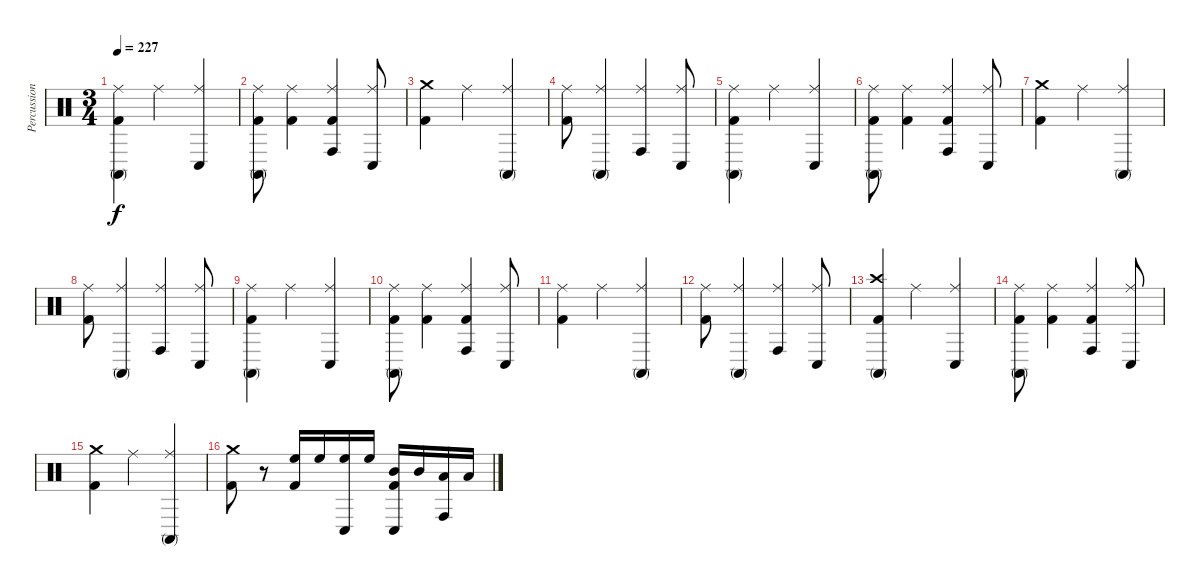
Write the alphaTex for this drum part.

\track ("Percussion" "Percussion") {instrument percussion}
\staff {score}
\articulation defaults
\ts (3 4)
\tempo 227
\clef neutral
\ks c
("Ride (middle)" "Conga high (mute)" "Kick (hit) 2").4{dy f} "Ride (middle)".4 ("Ride (middle)" "Conga low (hit)").4 |
("Ride (middle)" "Conga high (mute)" "Kick (hit) 2").8 ("Ride (middle)" "Kick (hit) 2").4 ("Ride (middle)" "Conga high (hit)" "Kick (hit) 2").4 ("Ride (middle)" "Conga low (hit)").8 |
("Crash medium (hit)" "Kick (hit) 2").4 "Ride (middle)".4 ("Ride (middle)" "Conga high (mute)").4 |
("Ride (middle)" "Kick (hit) 2").8 ("Ride (middle)" "Conga high (mute)").4 ("Ride (middle)" "Conga high (hit)").4 ("Ride (middle)" "Conga low (hit)").8 |
("Ride (middle)" "Conga high (mute)" "Kick (hit) 2").4 "Ride (middle)".4 ("Ride (middle)" "Conga low (hit)").4 |
("Ride (middle)" "Conga high (mute)" "Kick (hit) 2").8 ("Ride (middle)" "Kick (hit) 2").4 ("Ride (middle)" "Conga high (hit)" "Kick (hit) 2").4 ("Ride (middle)" "Conga low (hit)").8 |
("Crash medium (hit)" "Kick (hit) 2").4 "Ride (middle)".4 ("Ride (middle)" "Conga high (mute)").4 |
("Ride (middle)" "Kick (hit) 2").8 ("Ride (middle)" "Conga high (mute)").4 ("Ride (middle)" "Conga high (hit)").4 ("Ride (middle)" "Conga low (hit)").8 |
("Ride (middle)" "Conga high (mute)" "Kick (hit) 2").4 "Ride (middle)".4 ("Ride (middle)" "Conga low (hit)").4 |
("Ride (middle)" "Conga high (mute)" "Kick (hit) 2").8 ("Ride (middle)" "Kick (hit) 2").4 ("Ride (middle)" "Conga high (hit)" "Kick (hit) 2").4 ("Ride (middle)" "Conga low (hit)").8 |
("Ride (middle)" "Kick (hit) 2").4 "Ride (middle)".4 ("Ride (middle)" "Conga high (mute)").4 |
("Ride (middle)" "Kick (hit) 2").8 ("Ride (middle)" "Conga high (mute)").4 ("Ride (middle)" "Conga high (hit)").4 ("Ride (middle)" "Conga low (hit)").8 |
("Crash high (hit)" "Conga high (mute)" "Kick (hit) 2").4 "Ride (middle)".4 ("Ride (middle)" "Conga low (hit)").4 |
("Ride (middle)" "Conga high (mute)" "Kick (hit) 2").8 ("Ride (middle)" "Kick (hit) 2").4 ("Ride (middle)" "Conga high (hit)" "Kick (hit) 2").4 ("Ride (middle)" "Conga low (hit)").8 |
("Crash medium (hit)" "Kick (hit) 2").4 "Ride (middle)".4 ("Ride (middle)" "Conga high (mute)").4 |
("Crash medium (hit)" "Kick (hit) 2").8 r.8 ("High Floor Tom (hit)" "Kick (hit) 2").16 "High Floor Tom (hit)".16 ("Conga low (hit)" "High Floor Tom (hit)").16 "High Floor Tom (hit)".16 ("Conga low (hit)" "Mid Tom (hit)" "Kick (hit) 2").16 "Mid Tom (hit)".16 ("Conga high (hit)" "Low Tom (hit)").16 "Low Tom (hit)".16
